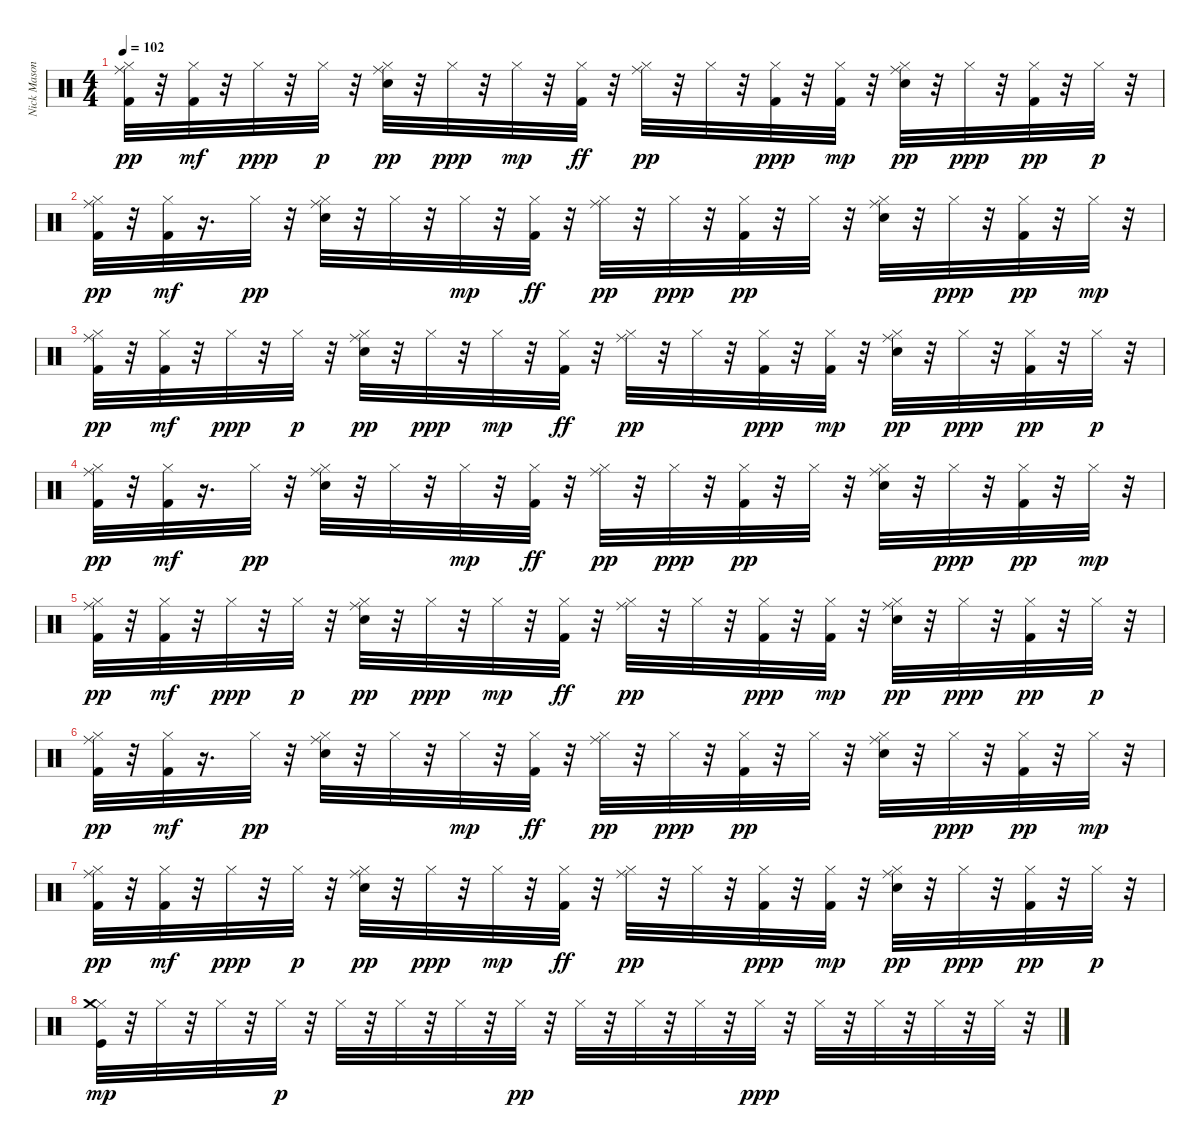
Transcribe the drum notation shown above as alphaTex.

\track ("Nick Mason / Gary Wallis" "Nick Mason") {instrument percussion}
\staff {score}
\articulation defaults
\ts (4 4)
\tempo 102
\clef neutral
\ks c
("Kick (hit) 2" "Hi-Hat (closed)" "Ride (middle)").32{dy pp} r.32 ("Hi-Hat (closed)" "Kick (hit) 2").32{dy mf} r.32 "Hi-Hat (closed)".32{dy ppp} r.32 "Hi-Hat (closed)".32{dy p} r.32 ("Snare (hit) 2" "Hi-Hat (closed)" "Ride (middle)").32{dy pp} r.32 "Hi-Hat (closed)".32{dy ppp} r.32 "Hi-Hat (closed)".32{dy mp} r.32 ("Hi-Hat (closed)" "Kick (hit) 2").32{dy ff} r.32 ("Hi-Hat (closed)" "Ride (middle)").32{dy pp} r.32 "Hi-Hat (closed)".32 r.32 ("Hi-Hat (closed)" "Kick (hit) 2").32{dy ppp} r.32 ("Hi-Hat (closed)" "Kick (hit) 2").32{dy mp} r.32 ("Snare (hit) 2" "Hi-Hat (closed)" "Ride (middle)").32{dy pp} r.32 "Hi-Hat (closed)".32{dy ppp} r.32 ("Kick (hit) 2" "Hi-Hat (closed)").32{dy pp} r.32 "Hi-Hat (closed)".32{dy p} r.32 |
("Kick (hit) 2" "Hi-Hat (closed)" "Ride (middle)").32{dy pp} r.32 ("Hi-Hat (closed)" "Kick (hit) 2").32{dy mf} r.16{d} "Hi-Hat (closed)".32{dy pp} r.32 ("Snare (hit) 2" "Hi-Hat (closed)" "Ride (middle)").32 r.32 "Hi-Hat (closed)".32 r.32 "Hi-Hat (closed)".32{dy mp} r.32 ("Hi-Hat (closed)" "Kick (hit) 2").32{dy ff} r.32 ("Hi-Hat (closed)" "Ride (middle)").32{dy pp} r.32 "Hi-Hat (closed)".32{dy ppp} r.32 ("Hi-Hat (closed)" "Kick (hit) 2").32{dy pp} r.32 "Hi-Hat (closed)".32 r.32 ("Snare (hit) 2" "Hi-Hat (closed)" "Ride (middle)").32 r.32 "Hi-Hat (closed)".32{dy ppp} r.32 ("Kick (hit) 2" "Hi-Hat (closed)").32{dy pp} r.32 "Hi-Hat (closed)".32{dy mp} r.32 |
("Kick (hit) 2" "Hi-Hat (closed)" "Ride (middle)").32{dy pp} r.32 ("Hi-Hat (closed)" "Kick (hit) 2").32{dy mf} r.32 "Hi-Hat (closed)".32{dy ppp} r.32 "Hi-Hat (closed)".32{dy p} r.32 ("Snare (hit) 2" "Hi-Hat (closed)" "Ride (middle)").32{dy pp} r.32 "Hi-Hat (closed)".32{dy ppp} r.32 "Hi-Hat (closed)".32{dy mp} r.32 ("Hi-Hat (closed)" "Kick (hit) 2").32{dy ff} r.32 ("Hi-Hat (closed)" "Ride (middle)").32{dy pp} r.32 "Hi-Hat (closed)".32 r.32 ("Hi-Hat (closed)" "Kick (hit) 2").32{dy ppp} r.32 ("Hi-Hat (closed)" "Kick (hit) 2").32{dy mp} r.32 ("Snare (hit) 2" "Hi-Hat (closed)" "Ride (middle)").32{dy pp} r.32 "Hi-Hat (closed)".32{dy ppp} r.32 ("Kick (hit) 2" "Hi-Hat (closed)").32{dy pp} r.32 "Hi-Hat (closed)".32{dy p} r.32 |
("Kick (hit) 2" "Hi-Hat (closed)" "Ride (middle)").32{dy pp} r.32 ("Hi-Hat (closed)" "Kick (hit) 2").32{dy mf} r.16{d} "Hi-Hat (closed)".32{dy pp} r.32 ("Snare (hit) 2" "Hi-Hat (closed)" "Ride (middle)").32 r.32 "Hi-Hat (closed)".32 r.32 "Hi-Hat (closed)".32{dy mp} r.32 ("Hi-Hat (closed)" "Kick (hit) 2").32{dy ff} r.32 ("Hi-Hat (closed)" "Ride (middle)").32{dy pp} r.32 "Hi-Hat (closed)".32{dy ppp} r.32 ("Hi-Hat (closed)" "Kick (hit) 2").32{dy pp} r.32 "Hi-Hat (closed)".32 r.32 ("Snare (hit) 2" "Hi-Hat (closed)" "Ride (middle)").32 r.32 "Hi-Hat (closed)".32{dy ppp} r.32 ("Kick (hit) 2" "Hi-Hat (closed)").32{dy pp} r.32 "Hi-Hat (closed)".32{dy mp} r.32 |
("Kick (hit) 2" "Hi-Hat (closed)" "Ride (middle)").32{dy pp} r.32 ("Hi-Hat (closed)" "Kick (hit) 2").32{dy mf} r.32 "Hi-Hat (closed)".32{dy ppp} r.32 "Hi-Hat (closed)".32{dy p} r.32 ("Snare (hit) 2" "Hi-Hat (closed)" "Ride (middle)").32{dy pp} r.32 "Hi-Hat (closed)".32{dy ppp} r.32 "Hi-Hat (closed)".32{dy mp} r.32 ("Hi-Hat (closed)" "Kick (hit) 2").32{dy ff} r.32 ("Hi-Hat (closed)" "Ride (middle)").32{dy pp} r.32 "Hi-Hat (closed)".32 r.32 ("Hi-Hat (closed)" "Kick (hit) 2").32{dy ppp} r.32 ("Hi-Hat (closed)" "Kick (hit) 2").32{dy mp} r.32 ("Snare (hit) 2" "Hi-Hat (closed)" "Ride (middle)").32{dy pp} r.32 "Hi-Hat (closed)".32{dy ppp} r.32 ("Kick (hit) 2" "Hi-Hat (closed)").32{dy pp} r.32 "Hi-Hat (closed)".32{dy p} r.32 |
("Kick (hit) 2" "Hi-Hat (closed)" "Ride (middle)").32{dy pp} r.32 ("Hi-Hat (closed)" "Kick (hit) 2").32{dy mf} r.16{d} "Hi-Hat (closed)".32{dy pp} r.32 ("Snare (hit) 2" "Hi-Hat (closed)" "Ride (middle)").32 r.32 "Hi-Hat (closed)".32 r.32 "Hi-Hat (closed)".32{dy mp} r.32 ("Hi-Hat (closed)" "Kick (hit) 2").32{dy ff} r.32 ("Hi-Hat (closed)" "Ride (middle)").32{dy pp} r.32 "Hi-Hat (closed)".32{dy ppp} r.32 ("Hi-Hat (closed)" "Kick (hit) 2").32{dy pp} r.32 "Hi-Hat (closed)".32 r.32 ("Snare (hit) 2" "Hi-Hat (closed)" "Ride (middle)").32 r.32 "Hi-Hat (closed)".32{dy ppp} r.32 ("Kick (hit) 2" "Hi-Hat (closed)").32{dy pp} r.32 "Hi-Hat (closed)".32{dy mp} r.32 |
("Kick (hit) 2" "Hi-Hat (closed)" "Ride (middle)").32{dy pp} r.32 ("Hi-Hat (closed)" "Kick (hit) 2").32{dy mf} r.32 "Hi-Hat (closed)".32{dy ppp} r.32 "Hi-Hat (closed)".32{dy p} r.32 ("Snare (hit) 2" "Hi-Hat (closed)" "Ride (middle)").32{dy pp} r.32 "Hi-Hat (closed)".32{dy ppp} r.32 "Hi-Hat (closed)".32{dy mp} r.32 ("Hi-Hat (closed)" "Kick (hit) 2").32{dy ff} r.32 ("Hi-Hat (closed)" "Ride (middle)").32{dy pp} r.32 "Hi-Hat (closed)".32 r.32 ("Hi-Hat (closed)" "Kick (hit) 2").32{dy ppp} r.32 ("Hi-Hat (closed)" "Kick (hit) 2").32{dy mp} r.32 ("Snare (hit) 2" "Hi-Hat (closed)" "Ride (middle)").32{dy pp} r.32 "Hi-Hat (closed)".32{dy ppp} r.32 ("Kick (hit) 2" "Hi-Hat (closed)").32{dy pp} r.32 "Hi-Hat (closed)".32{dy p} r.32 |
("Kick (hit)" "Hi-Hat (closed)" "Crash medium (hit)").32{dy mp} r.32 "Hi-Hat (closed)".32 r.32 "Hi-Hat (closed)".32 r.32 "Hi-Hat (closed)".32{dy p} r.32 "Hi-Hat (closed)".32 r.32 "Hi-Hat (closed)".32 r.32 "Hi-Hat (closed)".32 r.32 "Hi-Hat (closed)".32{dy pp} r.32 "Hi-Hat (closed)".32 r.32 "Hi-Hat (closed)".32 r.32 "Hi-Hat (closed)".32 r.32 "Hi-Hat (closed)".32{dy ppp} r.32 "Hi-Hat (closed)".32 r.32 "Hi-Hat (closed)".32 r.32 "Hi-Hat (closed)".32 r.32 "Hi-Hat (closed)".32 r.32
